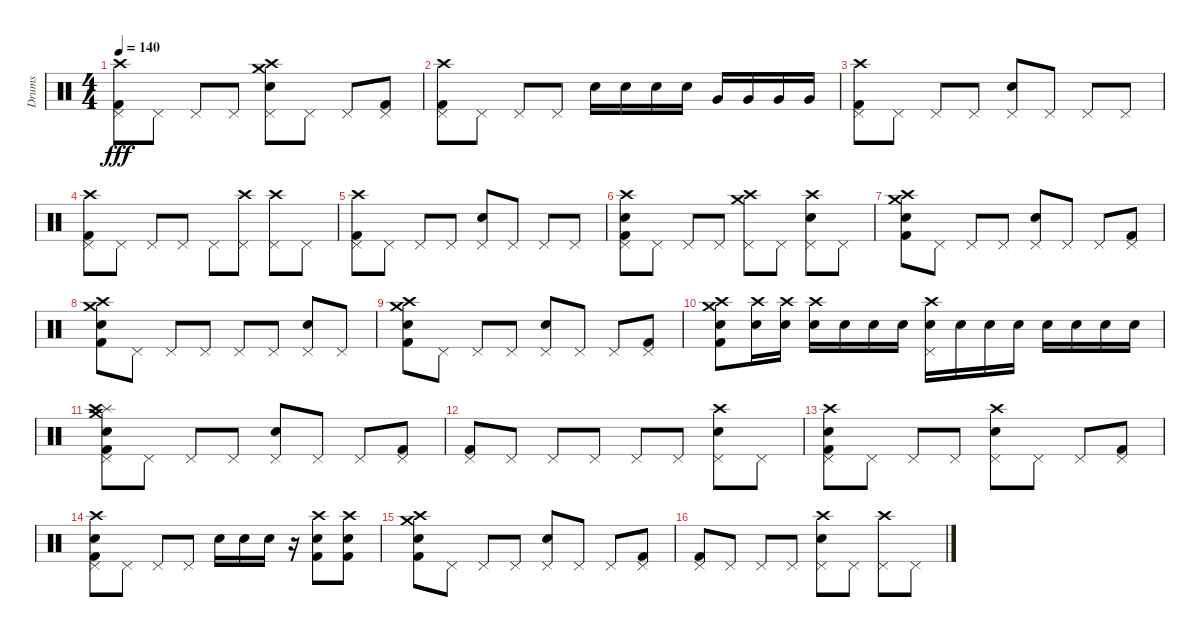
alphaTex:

\track ("Drums" "Drums") {instrument percussion}
\staff {score}
\articulation defaults
\ts (4 4)
\tempo 140
\clef neutral
\ks c
("Crash high (hit)" "Pedal Hi-Hat (hit)" "Kick (hit) 2").8{dy fff} "Pedal Hi-Hat (hit)".8 "Pedal Hi-Hat (hit)".8 "Pedal Hi-Hat (hit)".8 ("Crash medium (hit)" "Crash high (hit)" "Pedal Hi-Hat (hit)" "Snare (hit) 2").8 "Pedal Hi-Hat (hit)".8 "Pedal Hi-Hat (hit)".8 ("Pedal Hi-Hat (hit)" "Kick (hit) 2").8 |
("Crash high (hit)" "Pedal Hi-Hat (hit)" "Kick (hit) 2").8 "Pedal Hi-Hat (hit)".8 "Pedal Hi-Hat (hit)".8 "Pedal Hi-Hat (hit)".8 "Snare (hit) 2".16 "Snare (hit) 2".16 "Snare (hit) 2".16 "Snare (hit) 2".16 "Very Low Tom (hit)".16 "Very Low Tom (hit)".16 "Very Low Tom (hit)".16 "Very Low Tom (hit)".16 |
("Crash high (hit)" "Pedal Hi-Hat (hit)" "Kick (hit) 2").8 "Pedal Hi-Hat (hit)".8 "Pedal Hi-Hat (hit)".8 "Pedal Hi-Hat (hit)".8 ("Pedal Hi-Hat (hit)" "Snare (hit) 2").8 "Pedal Hi-Hat (hit)".8 "Pedal Hi-Hat (hit)".8 "Pedal Hi-Hat (hit)".8 |
("Crash high (hit)" "Pedal Hi-Hat (hit)" "Kick (hit) 2").8 "Pedal Hi-Hat (hit)".8 "Pedal Hi-Hat (hit)".8 "Pedal Hi-Hat (hit)".8 "Pedal Hi-Hat (hit)".8 ("Pedal Hi-Hat (hit)" "Crash high (hit)").8 ("Pedal Hi-Hat (hit)" "Crash high (hit)").8 "Pedal Hi-Hat (hit)".8 |
("Crash high (hit)" "Pedal Hi-Hat (hit)" "Kick (hit) 2").8 "Pedal Hi-Hat (hit)".8 "Pedal Hi-Hat (hit)".8 "Pedal Hi-Hat (hit)".8 ("Pedal Hi-Hat (hit)" "Snare (hit) 2").8 "Pedal Hi-Hat (hit)".8 "Pedal Hi-Hat (hit)".8 "Pedal Hi-Hat (hit)".8 |
("Crash high (hit)" "Pedal Hi-Hat (hit)" "Snare (hit) 2" "Kick (hit) 2").8 "Pedal Hi-Hat (hit)".8 "Pedal Hi-Hat (hit)".8 "Pedal Hi-Hat (hit)".8 ("Crash medium (hit)" "Crash high (hit)" "Pedal Hi-Hat (hit)").8 "Pedal Hi-Hat (hit)".8 ("Crash high (hit)" "Pedal Hi-Hat (hit)" "Snare (hit) 2").8 "Pedal Hi-Hat (hit)".8 |
("Crash medium (hit)" "Crash high (hit)" "Snare (hit) 2" "Kick (hit) 2").8 "Pedal Hi-Hat (hit)".8 "Pedal Hi-Hat (hit)".8 "Pedal Hi-Hat (hit)".8 ("Pedal Hi-Hat (hit)" "Snare (hit) 2").8 "Pedal Hi-Hat (hit)".8 "Pedal Hi-Hat (hit)".8 ("Pedal Hi-Hat (hit)" "Kick (hit) 2").8 |
("Crash medium (hit)" "Crash high (hit)" "Snare (hit) 2" "Kick (hit) 2").8 "Pedal Hi-Hat (hit)".8 "Pedal Hi-Hat (hit)".8 "Pedal Hi-Hat (hit)".8 "Pedal Hi-Hat (hit)".8 "Pedal Hi-Hat (hit)".8 ("Pedal Hi-Hat (hit)" "Snare (hit) 2").8 "Pedal Hi-Hat (hit)".8 |
("Crash medium (hit)" "Crash high (hit)" "Snare (hit) 2" "Kick (hit) 2").8 "Pedal Hi-Hat (hit)".8 "Pedal Hi-Hat (hit)".8 "Pedal Hi-Hat (hit)".8 ("Pedal Hi-Hat (hit)" "Snare (hit) 2").8 "Pedal Hi-Hat (hit)".8 "Pedal Hi-Hat (hit)".8 ("Pedal Hi-Hat (hit)" "Kick (hit) 2").8 |
("Crash medium (hit)" "Crash high (hit)" "Snare (hit) 2" "Kick (hit) 2").8 ("Crash high (hit)" "Snare (hit) 2").16 ("Crash high (hit)" "Snare (hit) 2").16 ("Crash high (hit)" "Snare (hit) 2").16 "Snare (hit) 2".16 "Snare (hit) 2".16 "Snare (hit) 2".16 ("Crash high (hit)" "Pedal Hi-Hat (hit)" "Snare (hit) 2").16 "Snare (hit) 2".16 "Snare (hit) 2".16 "Snare (hit) 2".16 "Snare (hit) 2".16 "Snare (hit) 2".16 "Snare (hit) 2".16 "Snare (hit) 2".16 |
("Crash medium (hit)" "Splash (hit)" "Pedal Hi-Hat (hit)" "Crash high (hit)" "Snare (hit) 2" "Kick (hit) 2").8 "Pedal Hi-Hat (hit)".8 "Pedal Hi-Hat (hit)".8 "Pedal Hi-Hat (hit)".8 ("Pedal Hi-Hat (hit)" "Snare (hit) 2").8 "Pedal Hi-Hat (hit)".8 "Pedal Hi-Hat (hit)".8 ("Pedal Hi-Hat (hit)" "Kick (hit) 2").8 |
("Pedal Hi-Hat (hit)" "Kick (hit) 2").8 "Pedal Hi-Hat (hit)".8 "Pedal Hi-Hat (hit)".8 "Pedal Hi-Hat (hit)".8 "Pedal Hi-Hat (hit)".8 "Pedal Hi-Hat (hit)".8 ("Crash high (hit)" "Pedal Hi-Hat (hit)" "Snare (hit) 2").8 "Pedal Hi-Hat (hit)".8 |
("Crash high (hit)" "Pedal Hi-Hat (hit)" "Snare (hit) 2" "Kick (hit) 2").8 "Pedal Hi-Hat (hit)".8 "Pedal Hi-Hat (hit)".8 "Pedal Hi-Hat (hit)".8 ("Crash high (hit)" "Pedal Hi-Hat (hit)" "Snare (hit) 2").8 "Pedal Hi-Hat (hit)".8 "Pedal Hi-Hat (hit)".8 ("Pedal Hi-Hat (hit)" "Kick (hit) 2").8 |
("Crash high (hit)" "Pedal Hi-Hat (hit)" "Snare (hit) 2" "Kick (hit) 2").8 "Pedal Hi-Hat (hit)".8 "Pedal Hi-Hat (hit)".8 "Pedal Hi-Hat (hit)".8 "Snare (hit) 2".16 "Snare (hit) 2".16 "Snare (hit) 2".16 r.16 ("Crash high (hit)" "Snare (hit) 2" "Kick (hit) 2").8 ("Crash high (hit)" "Snare (hit) 2" "Kick (hit) 2").8 |
("Crash medium (hit)" "Crash high (hit)" "Snare (hit) 2" "Kick (hit) 2").8 "Pedal Hi-Hat (hit)".8 "Pedal Hi-Hat (hit)".8 "Pedal Hi-Hat (hit)".8 ("Pedal Hi-Hat (hit)" "Snare (hit) 2").8 "Pedal Hi-Hat (hit)".8 "Pedal Hi-Hat (hit)".8 ("Pedal Hi-Hat (hit)" "Kick (hit) 2").8 |
("Pedal Hi-Hat (hit)" "Kick (hit) 2").8 "Pedal Hi-Hat (hit)".8 "Pedal Hi-Hat (hit)".8 "Pedal Hi-Hat (hit)".8 ("Crash high (hit)" "Pedal Hi-Hat (hit)" "Snare (hit) 2").8 "Pedal Hi-Hat (hit)".8 ("Crash high (hit)" "Pedal Hi-Hat (hit)").8 "Pedal Hi-Hat (hit)".8
